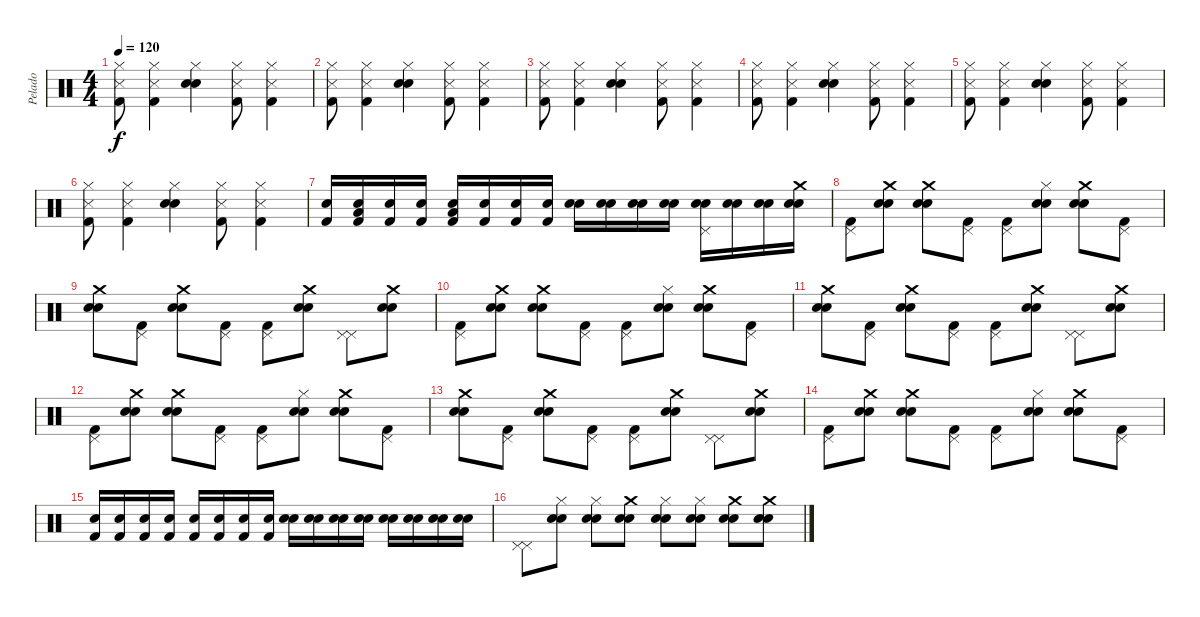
\track ("Pelado" "Pelado") {instrument percussion}
\staff {score}
\articulation defaults
\ts (4 4)
\tempo 120
\clef neutral
\ks c
("Hi-Hat (closed)" "Snare (side stick) 3" "Kick (hit) 2").8{dy f} ("Hi-Hat (closed)" "Snare (side stick) 3" "Kick (hit) 2").4 ("Hi-Hat (closed)" "Hand Clap (hit)" "Hand Clap (hit)").4 ("Hi-Hat (closed)" "Snare (side stick) 3" "Kick (hit) 2").8 ("Hi-Hat (closed)" "Snare (side stick) 3" "Kick (hit) 2").4 |
("Hi-Hat (closed)" "Snare (side stick) 3" "Kick (hit) 2").8 ("Hi-Hat (closed)" "Snare (side stick) 3" "Kick (hit) 2").4 ("Hi-Hat (closed)" "Hand Clap (hit)" "Hand Clap (hit)").4 ("Hi-Hat (closed)" "Snare (side stick) 3" "Kick (hit) 2").8 ("Hi-Hat (closed)" "Snare (side stick) 3" "Kick (hit) 2").4 |
("Hi-Hat (closed)" "Snare (side stick) 3" "Kick (hit) 2").8 ("Hi-Hat (closed)" "Snare (side stick) 3" "Kick (hit) 2").4 ("Hi-Hat (closed)" "Hand Clap (hit)" "Hand Clap (hit)").4 ("Hi-Hat (closed)" "Snare (side stick) 3" "Kick (hit) 2").8 ("Hi-Hat (closed)" "Snare (side stick) 3" "Kick (hit) 2").4 |
("Hi-Hat (closed)" "Snare (side stick) 3" "Kick (hit) 2").8 ("Hi-Hat (closed)" "Snare (side stick) 3" "Kick (hit) 2").4 ("Hi-Hat (closed)" "Hand Clap (hit)" "Hand Clap (hit)").4 ("Hi-Hat (closed)" "Snare (side stick) 3" "Kick (hit) 2").8 ("Hi-Hat (closed)" "Snare (side stick) 3" "Kick (hit) 2").4 |
("Hi-Hat (closed)" "Snare (side stick) 3" "Kick (hit) 2").8 ("Hi-Hat (closed)" "Snare (side stick) 3" "Kick (hit) 2").4 ("Hi-Hat (closed)" "Hand Clap (hit)" "Hand Clap (hit)").4 ("Hi-Hat (closed)" "Snare (side stick) 3" "Kick (hit) 2").8 ("Hi-Hat (closed)" "Snare (side stick) 3" "Kick (hit) 2").4 |
("Hi-Hat (closed)" "Snare (side stick) 3" "Kick (hit) 2").8 ("Hi-Hat (closed)" "Snare (side stick) 3" "Kick (hit) 2").4 ("Hi-Hat (closed)" "Hand Clap (hit)" "Hand Clap (hit)").4 ("Hi-Hat (closed)" "Snare (side stick) 3" "Kick (hit) 2").8 ("Hi-Hat (closed)" "Snare (side stick) 3" "Kick (hit) 2").4 |
("Snare (hit) 2" "Kick (hit) 2").16 ("Low Floor Tom (hit)" "Snare (hit) 2" "Kick (hit) 2").16 ("Snare (hit) 2" "Kick (hit) 2").16 ("Snare (hit) 2" "Kick (hit) 2").16 ("Low Floor Tom (hit)" "Snare (hit) 2" "Kick (hit) 2").16 ("Snare (hit) 2" "Kick (hit) 2").16 ("Snare (hit) 2" "Kick (hit) 2").16 ("Snare (hit) 2" "Kick (hit) 2").16 ("Electric Snare (hit)" "Electric Snare (hit)").16 ("Electric Snare (hit)" "Electric Snare (hit)").16 ("Electric Snare (hit)" "Electric Snare (hit)").16 ("Electric Snare (hit)" "Electric Snare (hit)").16 ("Pedal Hi-Hat (hit)" "Electric Snare (hit)" "Electric Snare (hit)").16 ("Electric Snare (hit)" "Electric Snare (hit)").16 ("Electric Snare (hit)" "Electric Snare (hit)").16 ("Crash medium (hit)" "Electric Snare (hit)" "Electric Snare (hit)").16 |
("Pedal Hi-Hat (hit)" "Kick (hit) 2").8 ("Crash medium (hit)" "Snare (hit) 2" "Snare (hit) 2").8 ("Crash medium (hit)" "Snare (hit) 2" "Snare (hit) 2").8 ("Pedal Hi-Hat (hit)" "Kick (hit) 2").8 ("Pedal Hi-Hat (hit)" "Kick (hit) 2").8 ("Hi-Hat (closed)" "Snare (hit) 2" "Snare (hit) 2").8 ("Crash medium (hit)" "Snare (hit) 2" "Snare (hit) 2").8 ("Pedal Hi-Hat (hit)" "Kick (hit) 2").8 |
("Crash medium (hit)" "Snare (hit) 2" "Snare (hit) 2").8 ("Pedal Hi-Hat (hit)" "Kick (hit) 2").8 ("Crash medium (hit)" "Snare (hit) 2" "Snare (hit) 2").8 ("Pedal Hi-Hat (hit)" "Kick (hit) 2").8 ("Pedal Hi-Hat (hit)" "Kick (hit) 2").8 ("Crash medium (hit)" "Snare (hit) 2" "Snare (hit) 2").8 ("Pedal Hi-Hat (hit)" "Pedal Hi-Hat (hit)").8 ("Crash medium (hit)" "Snare (hit) 2" "Snare (hit) 2").8 |
("Pedal Hi-Hat (hit)" "Kick (hit) 2").8 ("Crash medium (hit)" "Snare (hit) 2" "Snare (hit) 2").8 ("Crash medium (hit)" "Snare (hit) 2" "Snare (hit) 2").8 ("Pedal Hi-Hat (hit)" "Kick (hit) 2").8 ("Pedal Hi-Hat (hit)" "Kick (hit) 2").8 ("Hi-Hat (closed)" "Snare (hit) 2" "Snare (hit) 2").8 ("Crash medium (hit)" "Snare (hit) 2" "Snare (hit) 2").8 ("Pedal Hi-Hat (hit)" "Kick (hit) 2").8 |
("Crash medium (hit)" "Snare (hit) 2" "Snare (hit) 2").8 ("Pedal Hi-Hat (hit)" "Kick (hit) 2").8 ("Crash medium (hit)" "Snare (hit) 2" "Snare (hit) 2").8 ("Pedal Hi-Hat (hit)" "Kick (hit) 2").8 ("Pedal Hi-Hat (hit)" "Kick (hit) 2").8 ("Crash medium (hit)" "Snare (hit) 2" "Snare (hit) 2").8 ("Pedal Hi-Hat (hit)" "Pedal Hi-Hat (hit)").8 ("Crash medium (hit)" "Snare (hit) 2" "Snare (hit) 2").8 |
("Pedal Hi-Hat (hit)" "Kick (hit) 2").8 ("Crash medium (hit)" "Snare (hit) 2" "Snare (hit) 2").8 ("Crash medium (hit)" "Snare (hit) 2" "Snare (hit) 2").8 ("Pedal Hi-Hat (hit)" "Kick (hit) 2").8 ("Pedal Hi-Hat (hit)" "Kick (hit) 2").8 ("Hi-Hat (closed)" "Snare (hit) 2" "Snare (hit) 2").8 ("Crash medium (hit)" "Snare (hit) 2" "Snare (hit) 2").8 ("Pedal Hi-Hat (hit)" "Kick (hit) 2").8 |
("Crash medium (hit)" "Snare (hit) 2" "Snare (hit) 2").8 ("Pedal Hi-Hat (hit)" "Kick (hit) 2").8 ("Crash medium (hit)" "Snare (hit) 2" "Snare (hit) 2").8 ("Pedal Hi-Hat (hit)" "Kick (hit) 2").8 ("Pedal Hi-Hat (hit)" "Kick (hit) 2").8 ("Crash medium (hit)" "Snare (hit) 2" "Snare (hit) 2").8 ("Pedal Hi-Hat (hit)" "Pedal Hi-Hat (hit)").8 ("Crash medium (hit)" "Snare (hit) 2" "Snare (hit) 2").8 |
("Pedal Hi-Hat (hit)" "Kick (hit) 2").8 ("Crash medium (hit)" "Snare (hit) 2" "Snare (hit) 2").8 ("Crash medium (hit)" "Snare (hit) 2" "Snare (hit) 2").8 ("Pedal Hi-Hat (hit)" "Kick (hit) 2").8 ("Pedal Hi-Hat (hit)" "Kick (hit) 2").8 ("Hi-Hat (closed)" "Snare (hit) 2" "Snare (hit) 2").8 ("Crash medium (hit)" "Snare (hit) 2" "Snare (hit) 2").8 ("Pedal Hi-Hat (hit)" "Kick (hit) 2").8 |
("Snare (hit) 2" "Kick (hit) 2").16 ("Snare (hit) 2" "Kick (hit) 2").16 ("Snare (hit) 2" "Kick (hit) 2").16 ("Snare (hit) 2" "Kick (hit) 2").16 ("Snare (hit) 2" "Kick (hit) 2").16 ("Snare (hit) 2" "Kick (hit) 2").16 ("Snare (hit) 2" "Kick (hit) 2").16 ("Snare (hit) 2" "Kick (hit) 2").16 ("Electric Snare (hit)" "Electric Snare (hit)").16 ("Electric Snare (hit)" "Electric Snare (hit)").16 ("Electric Snare (hit)" "Electric Snare (hit)").16 ("Electric Snare (hit)" "Electric Snare (hit)").16 ("Electric Snare (hit)" "Electric Snare (hit)").16 ("Electric Snare (hit)" "Electric Snare (hit)").16 ("Electric Snare (hit)" "Electric Snare (hit)").16 ("Electric Snare (hit)" "Electric Snare (hit)").16 |
("Pedal Hi-Hat (hit)" "Pedal Hi-Hat (hit)").8 ("Hi-Hat (closed)" "Electric Snare (hit)" "Electric Snare (hit)").8 ("Hi-Hat (closed)" "Electric Snare (hit)" "Electric Snare (hit)").8 ("Crash medium (hit)" "Electric Snare (hit)" "Electric Snare (hit)").8 ("Hi-Hat (closed)" "Electric Snare (hit)" "Electric Snare (hit)").8 ("Hi-Hat (closed)" "Electric Snare (hit)" "Electric Snare (hit)").8 ("Crash medium (hit)" "Electric Snare (hit)" "Electric Snare (hit)").8 ("Crash medium (hit)" "Electric Snare (hit)" "Electric Snare (hit)").8
